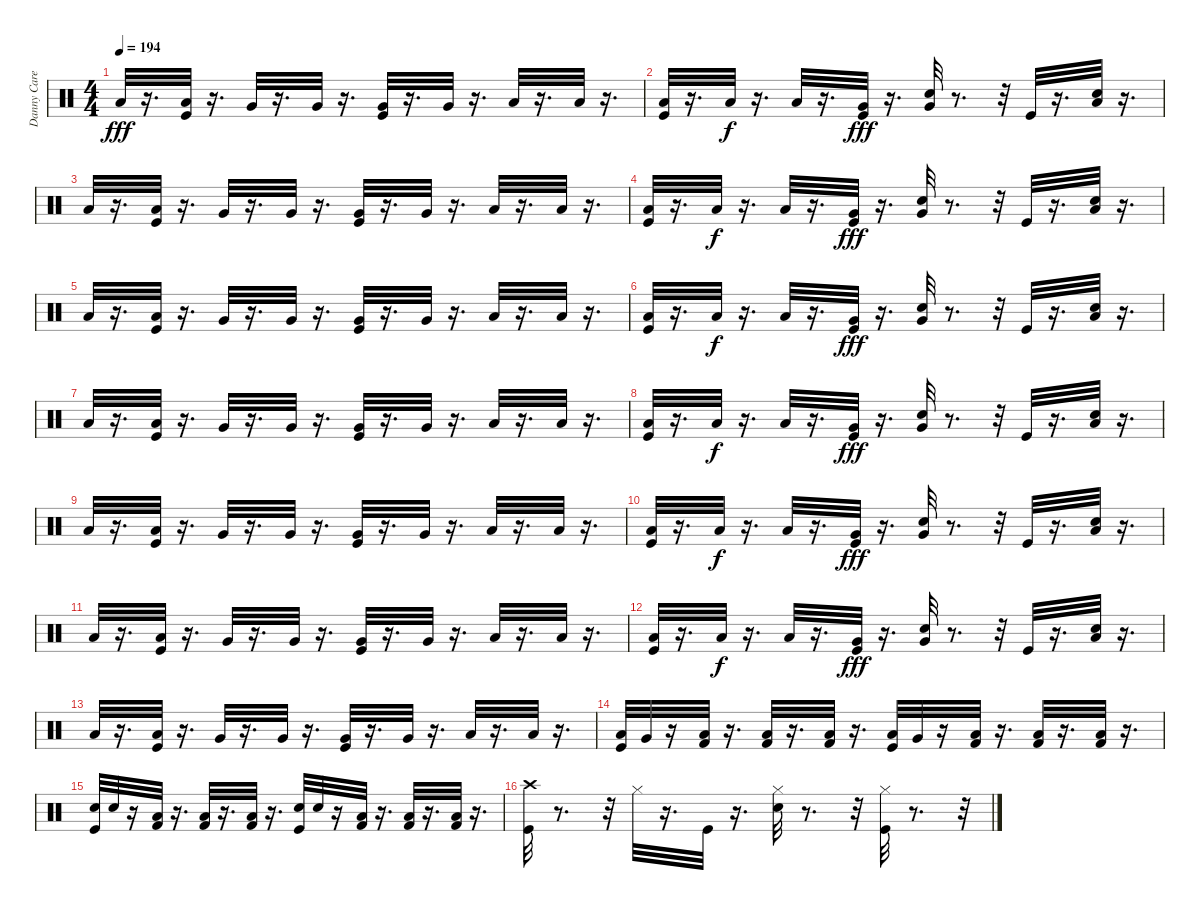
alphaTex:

\track ("Danny Carey" "Danny Care") {instrument percussion}
\staff {score}
\articulation defaults
\ts (4 4)
\tempo 194
\clef neutral
\ks c "Low Tom (hit)".32{dy fff}
r.16{d} ("Low Tom (hit)" "Kick (hit)").32 r.16{d} "Very Low Tom (hit)".32 r.16{d} "Very Low Tom (hit)".32 r.16{d} ("Very Low Tom (hit)" "Kick (hit)").32 r.16{d} "Very Low Tom (hit)".32 r.16{d} "Low Floor Tom (hit)".32 r.16{d} "Low Floor Tom (hit)".32 r.16{d} |
("Low Floor Tom (hit)" "Kick (hit)").32 r.16{d} "Low Floor Tom (hit)".32{dy f} r.16{d} "Low Floor Tom (hit)".32 r.16{d} ("Very Low Tom (hit)" "Kick (hit)").32{dy fff} r.16{d} ("Very Low Tom (hit)" "Snare (hit) 2").32 r.8{d} r.32 "Kick (hit)".32 r.16{d} ("Low Tom (hit)" "Snare (hit) 2").32 r.16{d} |
"Low Tom (hit)".32 r.16{d} ("Low Tom (hit)" "Kick (hit)").32 r.16{d} "Very Low Tom (hit)".32 r.16{d} "Very Low Tom (hit)".32 r.16{d} ("Very Low Tom (hit)" "Kick (hit)").32 r.16{d} "Very Low Tom (hit)".32 r.16{d} "Low Floor Tom (hit)".32 r.16{d} "Low Floor Tom (hit)".32 r.16{d} |
("Low Floor Tom (hit)" "Kick (hit)").32 r.16{d} "Low Floor Tom (hit)".32{dy f} r.16{d} "Low Floor Tom (hit)".32 r.16{d} ("Very Low Tom (hit)" "Kick (hit)").32{dy fff} r.16{d} ("Very Low Tom (hit)" "Snare (hit) 2").32 r.8{d} r.32 "Kick (hit)".32 r.16{d} ("Low Tom (hit)" "Snare (hit) 2").32 r.16{d} |
"Low Tom (hit)".32 r.16{d} ("Low Tom (hit)" "Kick (hit)").32 r.16{d} "Very Low Tom (hit)".32 r.16{d} "Very Low Tom (hit)".32 r.16{d} ("Very Low Tom (hit)" "Kick (hit)").32 r.16{d} "Very Low Tom (hit)".32 r.16{d} "Low Floor Tom (hit)".32 r.16{d} "Low Floor Tom (hit)".32 r.16{d} |
("Low Floor Tom (hit)" "Kick (hit)").32 r.16{d} "Low Floor Tom (hit)".32{dy f} r.16{d} "Low Floor Tom (hit)".32 r.16{d} ("Very Low Tom (hit)" "Kick (hit)").32{dy fff} r.16{d} ("Very Low Tom (hit)" "Snare (hit) 2").32 r.8{d} r.32 "Kick (hit)".32 r.16{d} ("Low Tom (hit)" "Snare (hit) 2").32 r.16{d} |
"Low Tom (hit)".32 r.16{d} ("Low Tom (hit)" "Kick (hit)").32 r.16{d} "Very Low Tom (hit)".32 r.16{d} "Very Low Tom (hit)".32 r.16{d} ("Very Low Tom (hit)" "Kick (hit)").32 r.16{d} "Very Low Tom (hit)".32 r.16{d} "Low Floor Tom (hit)".32 r.16{d} "Low Floor Tom (hit)".32 r.16{d} |
("Low Floor Tom (hit)" "Kick (hit)").32 r.16{d} "Low Floor Tom (hit)".32{dy f} r.16{d} "Low Floor Tom (hit)".32 r.16{d} ("Very Low Tom (hit)" "Kick (hit)").32{dy fff} r.16{d} ("Very Low Tom (hit)" "Snare (hit) 2").32 r.8{d} r.32 "Kick (hit)".32 r.16{d} ("Low Tom (hit)" "Snare (hit) 2").32 r.16{d} |
"Low Tom (hit)".32 r.16{d} ("Low Tom (hit)" "Kick (hit)").32 r.16{d} "Very Low Tom (hit)".32 r.16{d} "Very Low Tom (hit)".32 r.16{d} ("Very Low Tom (hit)" "Kick (hit)").32 r.16{d} "Very Low Tom (hit)".32 r.16{d} "Low Floor Tom (hit)".32 r.16{d} "Low Floor Tom (hit)".32 r.16{d} |
("Low Floor Tom (hit)" "Kick (hit)").32 r.16{d} "Low Floor Tom (hit)".32{dy f} r.16{d} "Low Floor Tom (hit)".32 r.16{d} ("Very Low Tom (hit)" "Kick (hit)").32{dy fff} r.16{d} ("Very Low Tom (hit)" "Snare (hit) 2").32 r.8{d} r.32 "Kick (hit)".32 r.16{d} ("Low Tom (hit)" "Snare (hit) 2").32 r.16{d} |
"Low Tom (hit)".32 r.16{d} ("Low Tom (hit)" "Kick (hit)").32 r.16{d} "Very Low Tom (hit)".32 r.16{d} "Very Low Tom (hit)".32 r.16{d} ("Very Low Tom (hit)" "Kick (hit)").32 r.16{d} "Very Low Tom (hit)".32 r.16{d} "Low Floor Tom (hit)".32 r.16{d} "Low Floor Tom (hit)".32 r.16{d} |
("Low Floor Tom (hit)" "Kick (hit)").32 r.16{d} "Low Floor Tom (hit)".32{dy f} r.16{d} "Low Floor Tom (hit)".32 r.16{d} ("Very Low Tom (hit)" "Kick (hit)").32{dy fff} r.16{d} ("Very Low Tom (hit)" "Snare (hit) 2").32 r.8{d} r.32 "Kick (hit)".32 r.16{d} ("Low Tom (hit)" "Snare (hit) 2").32 r.16{d} |
"Low Tom (hit)".32 r.16{d} ("Low Tom (hit)" "Kick (hit)").32 r.16{d} "Very Low Tom (hit)".32 r.16{d} "Very Low Tom (hit)".32 r.16{d} ("Very Low Tom (hit)" "Kick (hit)").32 r.16{d} "Very Low Tom (hit)".32 r.16{d} "Low Floor Tom (hit)".32 r.16{d} "Low Floor Tom (hit)".32 r.16{d} |
("Low Floor Tom (hit)" "Kick (hit)").32 "Very Low Tom (hit)".32 r.16 ("Low Floor Tom (hit)" "Kick (hit) 2").32 r.16{d} ("Low Floor Tom (hit)" "Kick (hit) 2").32 r.16{d} ("Low Floor Tom (hit)" "Kick (hit) 2").32 r.16{d} ("Low Floor Tom (hit)" "Kick (hit)").32 "Very Low Tom (hit)".32 r.16 ("Low Floor Tom (hit)" "Kick (hit) 2").32 r.16{d} ("Low Floor Tom (hit)" "Kick (hit) 2").32 r.16{d} ("Low Floor Tom (hit)" "Kick (hit) 2").32 r.16{d} |
("Snare (hit) 2" "Kick (hit)").32 "Snare (hit) 2".32 r.16 ("Low Floor Tom (hit)" "Kick (hit) 2").32 r.16{d} ("Low Floor Tom (hit)" "Kick (hit) 2").32 r.16{d} ("Low Floor Tom (hit)" "Kick (hit) 2").32 r.16{d} ("Snare (hit) 2" "Kick (hit)").32 "Snare (hit) 2".32 r.16 ("Low Floor Tom (hit)" "Kick (hit) 2").32 r.16{d} ("Low Floor Tom (hit)" "Kick (hit) 2").32 r.16{d} ("Low Floor Tom (hit)" "Kick (hit) 2").32 r.16{d} |
("Crash high (hit)" "Kick (hit)").32 r.8{d} r.32 "Hi-Hat (closed)".32 r.16{d} "Kick (hit)".32 r.16{d} ("Hi-Hat (closed)" "Snare (hit) 2").32 r.8{d} r.32 ("Hi-Hat (closed)" "Kick (hit)").32 r.8{d} r.32
